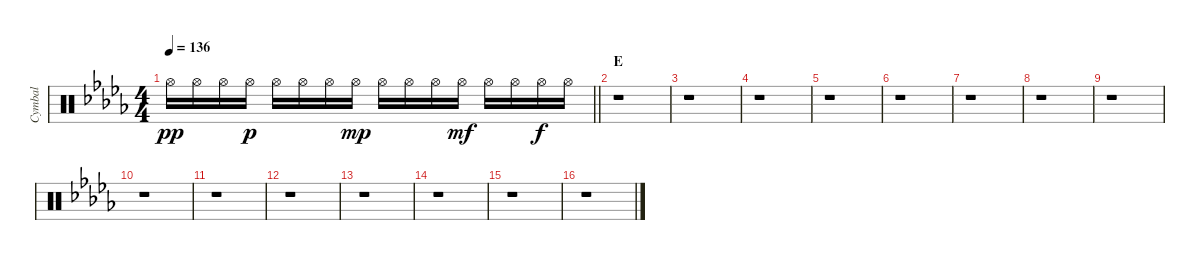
\track ("Cymbal" "Cymbal") {instrument percussion}
\staff {score}
\articulation defaults
\ts (4 4)
\tempo 136
\clef neutral
\barLineRight lightlight
\ks db "Hi-Hat (open)".16{dy pp} "Hi-Hat (open)".16 "Hi-Hat (open)".16 "Hi-Hat (open)".16{dy p} "Hi-Hat (open)".16 "Hi-Hat (open)".16 "Hi-Hat (open)".16 "Hi-Hat (open)".16{dy mp} "Hi-Hat (open)".16 "Hi-Hat (open)".16 "Hi-Hat (open)".16 "Hi-Hat (open)".16{dy mf} "Hi-Hat (open)".16 "Hi-Hat (open)".16 "Hi-Hat (open)".16{dy f} "Hi-Hat (open)".16
|
\section ("" "E")
r.1 |
r.1 |
r.1 |
r.1 |
r.1 |
r.1 |
r.1 |
r.1 |
r.1 |
r.1 |
r.1 |
r.1 |
r.1 |
r.1 |
r.1
